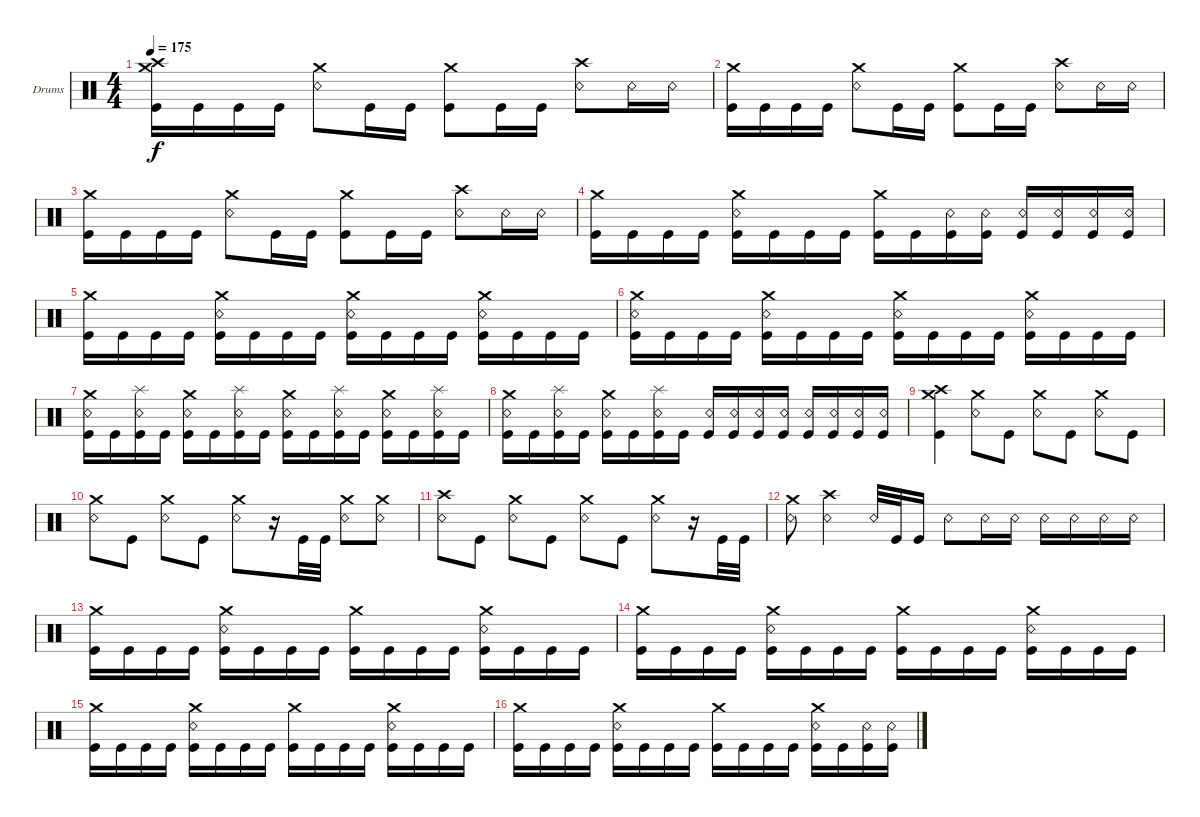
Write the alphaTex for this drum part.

\bracketExtendMode groupsimilarinstruments
\firstSystemTrackNameOrientation horizontal
\otherSystemsTrackNameOrientation horizontal
\track ("Drumkit" "Drums") {instrument percussion}
\staff {score}
\articulation defaults
\ts (4 4)
\tempo 175
\clef neutral
\ks c
("Crash high (hit)" "Crash medium (hit)" "Kick (hit)").16{dy f} "Kick (hit)".16 "Kick (hit)".16 "Kick (hit)".16 ("Crash medium (hit)" "Snare (rim shot)").8 "Kick (hit)".16 "Kick (hit)".16 ("Crash medium (hit)" "Kick (hit)").8 "Kick (hit)".16 "Kick (hit)".16 ("Crash high (hit)" "Snare (rim shot)").8 "Snare (rim shot)".16 "Snare (rim shot)".16 |
("Crash medium (hit)" "Kick (hit)").16 "Kick (hit)".16 "Kick (hit)".16 "Kick (hit)".16 ("Crash medium (hit)" "Snare (rim shot)").8 "Kick (hit)".16 "Kick (hit)".16 ("Crash medium (hit)" "Kick (hit)").8 "Kick (hit)".16 "Kick (hit)".16 ("Crash high (hit)" "Snare (rim shot)").8 "Snare (rim shot)".16 "Snare (rim shot)".16 |
("Crash medium (hit)" "Kick (hit)").16 "Kick (hit)".16 "Kick (hit)".16 "Kick (hit)".16 ("Crash medium (hit)" "Snare (rim shot)").8 "Kick (hit)".16 "Kick (hit)".16 ("Crash medium (hit)" "Kick (hit)").8 "Kick (hit)".16 "Kick (hit)".16 ("Crash high (hit)" "Snare (rim shot)").8 "Snare (rim shot)".16 "Snare (rim shot)".16 |
("Crash medium (hit)" "Kick (hit)").16 "Kick (hit)".16 "Kick (hit)".16 "Kick (hit)".16 ("Crash medium (hit)" "Snare (rim shot)" "Kick (hit)").16 "Kick (hit)".16 "Kick (hit)".16 "Kick (hit)".16 ("Crash medium (hit)" "Kick (hit)").16 "Kick (hit)".16 ("Snare (rim shot)" "Kick (hit)").16 ("Snare (rim shot)" "Kick (hit)").16 ("Snare (rim shot)" "Kick (hit)").16 ("Snare (rim shot)" "Kick (hit)").16 ("Snare (rim shot)" "Kick (hit)").16 ("Snare (rim shot)" "Kick (hit)").16 |
("Crash medium (hit)" "Kick (hit)").16 "Kick (hit)".16 "Kick (hit)".16 "Kick (hit)".16 ("Crash medium (hit)" "Snare (rim shot)" "Kick (hit)").16 "Kick (hit)".16 "Kick (hit)".16 "Kick (hit)".16 ("Crash medium (hit)" "Snare (rim shot)" "Kick (hit)").16 "Kick (hit)".16 "Kick (hit)".16 "Kick (hit)".16 ("Crash medium (hit)" "Snare (rim shot)" "Kick (hit)").16 "Kick (hit)".16 "Kick (hit)".16 "Kick (hit)".16 |
("Crash medium (hit)" "Snare (rim shot)" "Kick (hit)").16 "Kick (hit)".16 "Kick (hit)".16 "Kick (hit)".16 ("Crash medium (hit)" "Snare (rim shot)" "Kick (hit)").16 "Kick (hit)".16 "Kick (hit)".16 "Kick (hit)".16 ("Crash medium (hit)" "Snare (rim shot)" "Kick (hit)").16 "Kick (hit)".16 "Kick (hit)".16 "Kick (hit)".16 ("Crash medium (hit)" "Snare (rim shot)" "Kick (hit)").16 "Kick (hit)".16 "Kick (hit)".16 "Kick (hit)".16 |
("Crash medium (hit)" "Snare (rim shot)" "Kick (hit)").16 "Kick (hit)".16 ("Splash (hit)" "Snare (rim shot)" "Kick (hit)").16 "Kick (hit)".16 ("Crash medium (hit)" "Snare (rim shot)" "Kick (hit)").16 "Kick (hit)".16 ("Splash (hit)" "Snare (rim shot)" "Kick (hit)").16 "Kick (hit)".16 ("Crash medium (hit)" "Snare (rim shot)" "Kick (hit)").16 "Kick (hit)".16 ("Splash (hit)" "Snare (rim shot)" "Kick (hit)").16 "Kick (hit)".16 ("Crash medium (hit)" "Snare (rim shot)" "Kick (hit)").16 "Kick (hit)".16 ("Splash (hit)" "Snare (rim shot)" "Kick (hit)").16 "Kick (hit)".16 |
("Crash medium (hit)" "Snare (rim shot)" "Kick (hit)").16 "Kick (hit)".16 ("Splash (hit)" "Snare (rim shot)" "Kick (hit)").16 "Kick (hit)".16 ("Crash medium (hit)" "Snare (rim shot)" "Kick (hit)").16 "Kick (hit)".16 ("Splash (hit)" "Snare (rim shot)" "Kick (hit)").16 "Kick (hit)".16 ("Snare (rim shot)" "Kick (hit)").16 ("Snare (rim shot)" "Kick (hit)").16 ("Snare (rim shot)" "Kick (hit)").16 ("Snare (rim shot)" "Kick (hit)").16 ("Snare (rim shot)" "Kick (hit)").16 ("Snare (rim shot)" "Kick (hit)").16 ("Snare (rim shot)" "Kick (hit)").16 ("Snare (rim shot)" "Kick (hit)").16 |
("Crash high (hit)" "Crash medium (hit)" "Kick (hit)").4 ("Crash medium (hit)" "Snare (rim shot)").8 "Kick (hit)".8 ("Crash medium (hit)" "Snare (rim shot)").8 "Kick (hit)".8 ("Crash medium (hit)" "Snare (rim shot)").8 "Kick (hit)".8 |
("Crash medium (hit)" "Snare (rim shot)").8 "Kick (hit)".8 ("Crash medium (hit)" "Snare (rim shot)").8 "Kick (hit)".8 ("Crash medium (hit)" "Snare (rim shot)").8 r.16 "Kick (hit)".32 "Kick (hit)".32 ("Crash medium (hit)" "Snare (rim shot)").8 ("Crash medium (hit)" "Snare (rim shot)").8 |
("Crash high (hit)" "Snare (rim shot)").8 "Kick (hit)".8 ("Crash medium (hit)" "Snare (rim shot)").8 "Kick (hit)".8 ("Crash medium (hit)" "Snare (rim shot)").8 "Kick (hit)".8 ("Crash medium (hit)" "Snare (rim shot)").8 r.16 "Kick (hit)".32 "Kick (hit)".32 |
("Crash medium (hit)" "Snare (rim shot)").8 ("Crash high (hit)" "Snare (rim shot)").4 "Snare (rim shot)".32 "Kick (hit)".32 "Kick (hit)".16 "Snare (rim shot)".8 "Snare (rim shot)".16 "Snare (rim shot)".16 "Snare (rim shot)".16 "Snare (rim shot)".16 "Snare (rim shot)".16 "Snare (rim shot)".16 |
("Crash medium (hit)" "Kick (hit)").16 "Kick (hit)".16 "Kick (hit)".16 "Kick (hit)".16 ("Crash medium (hit)" "Snare (rim shot)" "Kick (hit)").16 "Kick (hit)".16 "Kick (hit)".16 "Kick (hit)".16 ("Crash medium (hit)" "Kick (hit)").16 "Kick (hit)".16 "Kick (hit)".16 "Kick (hit)".16 ("Crash medium (hit)" "Snare (rim shot)" "Kick (hit)").16 "Kick (hit)".16 "Kick (hit)".16 "Kick (hit)".16 |
("Crash medium (hit)" "Kick (hit)").16 "Kick (hit)".16 "Kick (hit)".16 "Kick (hit)".16 ("Crash medium (hit)" "Snare (rim shot)" "Kick (hit)").16 "Kick (hit)".16 "Kick (hit)".16 "Kick (hit)".16 ("Crash medium (hit)" "Kick (hit)").16 "Kick (hit)".16 "Kick (hit)".16 "Kick (hit)".16 ("Crash medium (hit)" "Snare (rim shot)" "Kick (hit)").16 "Kick (hit)".16 "Kick (hit)".16 "Kick (hit)".16 |
("Crash medium (hit)" "Kick (hit)").16 "Kick (hit)".16 "Kick (hit)".16 "Kick (hit)".16 ("Crash medium (hit)" "Snare (rim shot)" "Kick (hit)").16 "Kick (hit)".16 "Kick (hit)".16 "Kick (hit)".16 ("Crash medium (hit)" "Kick (hit)").16 "Kick (hit)".16 "Kick (hit)".16 "Kick (hit)".16 ("Crash medium (hit)" "Snare (rim shot)" "Kick (hit)").16 "Kick (hit)".16 "Kick (hit)".16 "Kick (hit)".16 |
("Crash medium (hit)" "Kick (hit)").16 "Kick (hit)".16 "Kick (hit)".16 "Kick (hit)".16 ("Crash medium (hit)" "Snare (rim shot)" "Kick (hit)").16 "Kick (hit)".16 "Kick (hit)".16 "Kick (hit)".16 ("Crash medium (hit)" "Kick (hit)").16 "Kick (hit)".16 "Kick (hit)".16 "Kick (hit)".16 ("Crash medium (hit)" "Snare (rim shot)" "Kick (hit)").16 "Kick (hit)".16 ("Snare (rim shot)" "Kick (hit)").16 ("Snare (rim shot)" "Kick (hit)").16
